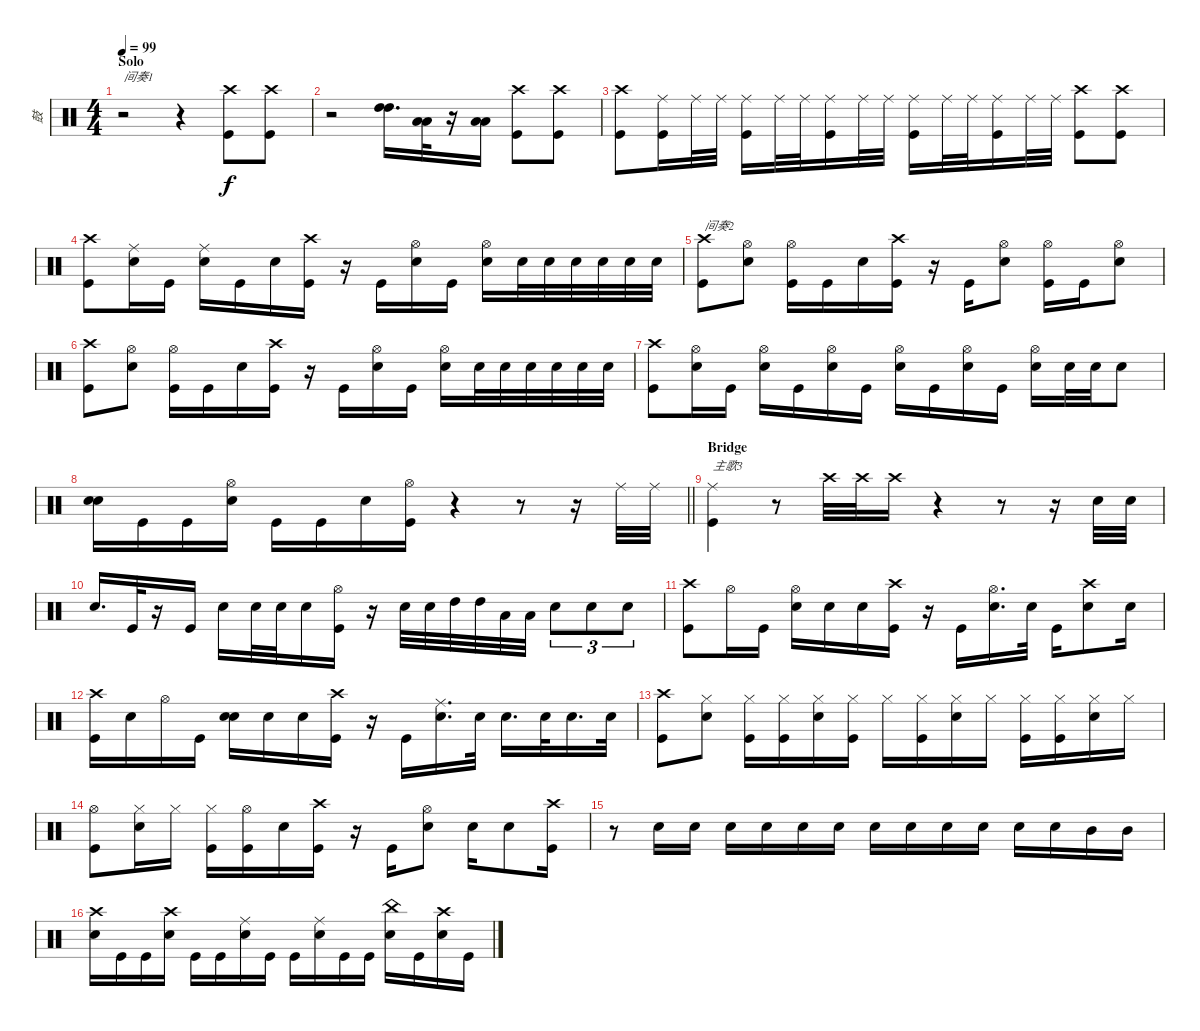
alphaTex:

\track ("鼓" "鼓") {instrument percussion}
\staff {score}
\articulation defaults
\ts (4 4)
\section ("" "Solo")
\tempo 99
\clef neutral
\ks c
r.2{txt "间奏1" dy f} r.4 ("Crash high (hit)" "Kick (hit)").8 ("Crash high (hit)" "Kick (hit)").8 |
r.2 ("High Tom (hit)" "High Tom (hit)").16{d} ("Low Tom (hit)" "Low Tom (hit)").32 r.16 ("Low Floor Tom (hit)" "Low Floor Tom (hit)").16 ("Crash high (hit)" "Kick (hit)").8 ("Crash high (hit)" "Kick (hit)").8 |
("Crash high (hit)" "Kick (hit)").8 ("Ride (middle)" "Kick (hit)").16 "Ride (middle)".32 "Ride (middle)".32 ("Ride (middle)" "Kick (hit)").16 "Ride (middle)".32 "Ride (middle)".32 ("Ride (middle)" "Kick (hit)").16 "Ride (middle)".32 "Ride (middle)".32 ("Ride (middle)" "Kick (hit)").16 "Ride (middle)".32 "Ride (middle)".32 ("Ride (middle)" "Kick (hit)").16 "Ride (middle)".32 "Ride (middle)".32 ("Crash high (hit)" "Kick (hit)").8 ("Crash high (hit)" "Kick (hit)").8 |
("Crash high (hit)" "Kick (hit)").8 ("Ride (middle)" "Snare (hit) 2").16 "Kick (hit)".16 ("Snare (hit) 2" "Ride (middle)").16 "Kick (hit)".16 "Snare (hit) 2".16 ("Kick (hit)" "Crash high (hit)").16 r.16 "Kick (hit)".16 ("Snare (hit) 2" "Hi-Hat (open)").16 "Kick (hit)".16 ("Snare (hit) 2" "Hi-Hat (open)").16 "Snare (hit) 2".32 "Snare (hit) 2".32 "Snare (hit) 2".32 "Snare (hit) 2".32 "Snare (hit) 2".32 "Snare (hit) 2".32 |
("Crash high (hit)" "Kick (hit)").8{txt "间奏2"} ("Snare (hit) 2" "Hi-Hat (open)").8 ("Kick (hit)" "Hi-Hat (open)").16 "Kick (hit)".16 "Snare (hit) 2".16 ("Crash high (hit)" "Kick (hit)").16 r.16 "Kick (hit)".16 ("Hi-Hat (open)" "Snare (hit) 2").8 ("Kick (hit)" "Hi-Hat (open)").16 "Kick (hit)".16 ("Snare (hit) 2" "Hi-Hat (open)").8 |
("Crash high (hit)" "Kick (hit)").8 ("Snare (hit) 2" "Hi-Hat (open)").8 ("Kick (hit)" "Hi-Hat (open)").16 "Kick (hit)".16 "Snare (hit) 2".16 ("Crash high (hit)" "Kick (hit)").16 r.16 "Kick (hit)".16 ("Hi-Hat (open)" "Snare (hit) 2").16 "Kick (hit)".16 ("Snare (hit) 2" "Hi-Hat (open)").16 "Snare (hit) 2".32 "Snare (hit) 2".32 "Snare (hit) 2".32 "Snare (hit) 2".32 "Snare (hit) 2".32 "Snare (hit) 2".32 |
("Crash high (hit)" "Kick (hit)").8 ("Snare (hit) 2" "Hi-Hat (open)").16 "Kick (hit)".16 ("Snare (hit) 2" "Hi-Hat (open)").16 "Kick (hit)".16 ("Snare (hit) 2" "Hi-Hat (open)").16 "Kick (hit)".16 ("Snare (hit) 2" "Hi-Hat (open)").16 "Kick (hit)".16 ("Snare (hit) 2" "Hi-Hat (open)").16 "Kick (hit)".16 ("Snare (hit) 2" "Hi-Hat (open)").16 "Snare (hit) 2".32 "Snare (hit) 2".32 "Snare (hit) 2".8 |
\barLineRight lightlight
("Snare (hit) 2" "Snare (hit) 2").16 "Kick (hit)".16 "Kick (hit)".16 ("Hi-Hat (open)" "Snare (hit) 2").16 "Kick (hit)".16 "Kick (hit)".16 "Snare (hit) 2".16 ("Hi-Hat (open)" "Kick (hit)").16 r.4 r.8 r.16 "Ride (middle)".32 "Ride (middle)".32 |
\section ("" "Bridge")
("Ride (middle)" "Kick (hit)").4{txt "主歌3"} r.8 "Crash high (hit)".32 "Crash high (hit)".32 "Crash high (hit)".16 r.4 r.8 r.16 "Snare (hit) 2".32 "Snare (hit) 2".32 |
"Snare (hit) 2".16{d} "Kick (hit)".32 r.16 "Kick (hit)".16 "Snare (hit) 2".16 "Snare (hit) 2".32 "Snare (hit) 2".32 "Snare (hit) 2".16 ("Hi-Hat (open)" "Kick (hit)").16 r.16 "Snare (hit) 2".32 "Snare (hit) 2".32 "High Tom (hit)".32 "High Tom (hit)".32 "Low Tom (hit)".32 "Low Tom (hit)".32 "Snare (hit) 2".8{tu (3 2)} "Snare (hit) 2".8{tu (3 2)} "Snare (hit) 2".8{tu (3 2)} |
("Crash high (hit)" "Kick (hit)").8 "Hi-Hat (open)".16 "Kick (hit)".16 ("Hi-Hat (open)" "Snare (hit) 2").16 "Snare (hit) 2".16 "Snare (hit) 2".16 ("Kick (hit)" "Crash high (hit)").16 r.16 "Kick (hit)".16 ("Snare (hit) 2" "Hi-Hat (open)").16{d} "Snare (hit) 2".32 "Kick (hit)".16 ("Crash high (hit)" "Snare (hit) 2").8 "Snare (hit) 2".16 |
("Crash high (hit)" "Kick (hit)").16 "Snare (hit) 2".16 "Hi-Hat (open)".16 "Kick (hit)".16 ("Snare (hit) 2" "Snare (hit) 2").16 "Snare (hit) 2".16 "Snare (hit) 2".16 ("Kick (hit)" "Crash high (hit)").16 r.16 "Kick (hit)".16 ("Snare (hit) 2" "Ride (middle)").16{d} "Snare (hit) 2".32 "Snare (hit) 2".16{d} "Snare (hit) 2".32 "Snare (hit) 2".16{d} "Snare (hit) 2".32 |
("Kick (hit)" "Crash high (hit)").8 ("Snare (hit) 2" "Hi-Hat (closed)").8 ("Kick (hit)" "Hi-Hat (closed)").16 ("Kick (hit)" "Hi-Hat (closed)").16 ("Snare (hit) 2" "Hi-Hat (closed)").16 ("Hi-Hat (closed)" "Kick (hit)").16 "Hi-Hat (closed)".16 ("Kick (hit)" "Hi-Hat (closed)").16 ("Snare (hit) 2" "Hi-Hat (closed)").16 "Hi-Hat (closed)".16 ("Hi-Hat (closed)" "Kick (hit)").16 ("Kick (hit)" "Hi-Hat (closed)").16 ("Snare (hit) 2" "Hi-Hat (closed)").16 "Hi-Hat (closed)".16 |
("Kick (hit)" "Hi-Hat (open)").8 ("Snare (hit) 2" "Hi-Hat (closed)").16 "Hi-Hat (closed)".16 ("Kick (hit)" "Hi-Hat (closed)").16 ("Kick (hit)" "Hi-Hat (open)").16 "Snare (hit) 2".16 ("Crash high (hit)" "Kick (hit)").16 r.16 "Kick (hit)".16 ("Snare (hit) 2" "Hi-Hat (open)").8 "Snare (hit) 2".16 "Snare (hit) 2".8 ("Kick (hit)" "Crash high (hit)").16 |
r.8 "Snare (hit) 2".16 "Snare (hit) 2".16 "Snare (hit) 2".16 "Snare (hit) 2".16 "Snare (hit) 2".16 "Snare (hit) 2".16 "Snare (hit) 2".16 "Snare (hit) 2".16 "Snare (hit) 2".16 "Snare (hit) 2".16 "Snare (hit) 2".16 "Snare (hit) 2".16 "Mid Tom (hit)".16 "Mid Tom (hit)".16 |
("Snare (hit) 2" "Crash high (hit)").16 "Kick (hit)".16 "Kick (hit)".16 ("Snare (hit) 2" "Crash high (hit)").16 "Kick (hit)".16 "Kick (hit)".16 ("Snare (hit) 2" "Ride (middle)").16 "Kick (hit)".16 "Kick (hit)".16 ("Snare (hit) 2" "Ride (middle)").16 "Kick (hit)".16 "Kick (hit)".16 ("Snare (hit) 2" "China (hit)").16 "Kick (hit)".16 ("Snare (hit) 2" "Crash high (hit)").16 "Kick (hit)".16
